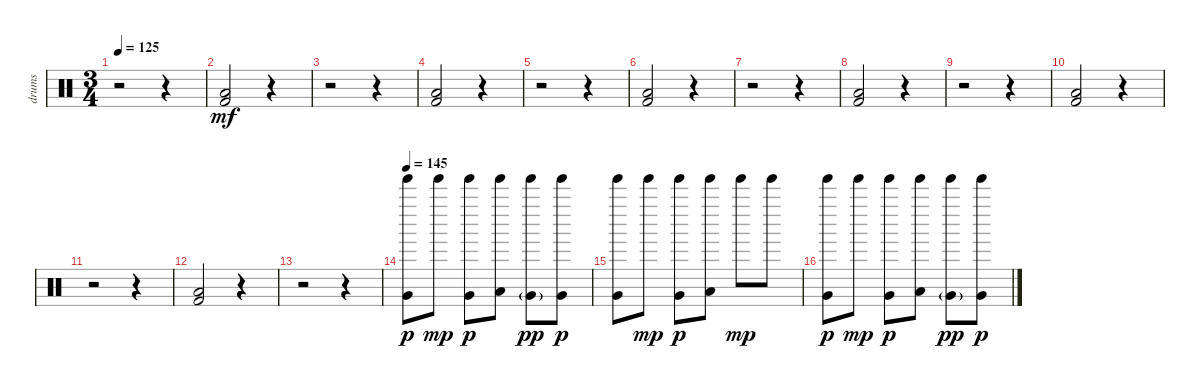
\track ("drums" "drums") {instrument percussion}
\staff {score}
\articulation defaults
\ts (3 4)
\tempo 125
\clef neutral
\ks c
r.2{dy mf} r.4 |
("Low Tom (hit)" "Kick (hit) 2").2 r.4 |
r.2 r.4 |
("Low Tom (hit)" "Kick (hit) 2").2 r.4 |
r.2 r.4 |
("Low Tom (hit)" "Kick (hit) 2").2 r.4 |
r.2 r.4 |
("Low Tom (hit)" "Kick (hit) 2").2 r.4 |
r.2 r.4 |
("Low Tom (hit)" "Kick (hit) 2").2 r.4 |
r.2 r.4 |
("Low Tom (hit)" "Kick (hit) 2").2 r.4 |
r.2 r.4 |
\tempo 145
("Tinkle Bell (hit)" "Very Low Tom (hit)").8{dy p} "Tinkle Bell (hit)".8{dy mp} ("Tinkle Bell (hit)" "Very Low Tom (hit)").8{dy p} ("Tinkle Bell (hit)" "Low Floor Tom (hit)").8 ("Tinkle Bell (hit)" "Very Low Tom (hit)"{g}).8{dy pp} ("Tinkle Bell (hit)" "Very Low Tom (hit)").8{dy p} |
("Tinkle Bell (hit)" "Very Low Tom (hit)").8 "Tinkle Bell (hit)".8{dy mp} ("Tinkle Bell (hit)" "Very Low Tom (hit)").8{dy p} ("Tinkle Bell (hit)" "Low Floor Tom (hit)").8 "Tinkle Bell (hit)".8{dy mp} "Tinkle Bell (hit)".8 |
("Tinkle Bell (hit)" "Very Low Tom (hit)").8{dy p} "Tinkle Bell (hit)".8{dy mp} ("Tinkle Bell (hit)" "Very Low Tom (hit)").8{dy p} ("Tinkle Bell (hit)" "Low Floor Tom (hit)").8 ("Tinkle Bell (hit)" "Very Low Tom (hit)"{g}).8{dy pp} ("Tinkle Bell (hit)" "Very Low Tom (hit)").8{dy p}
